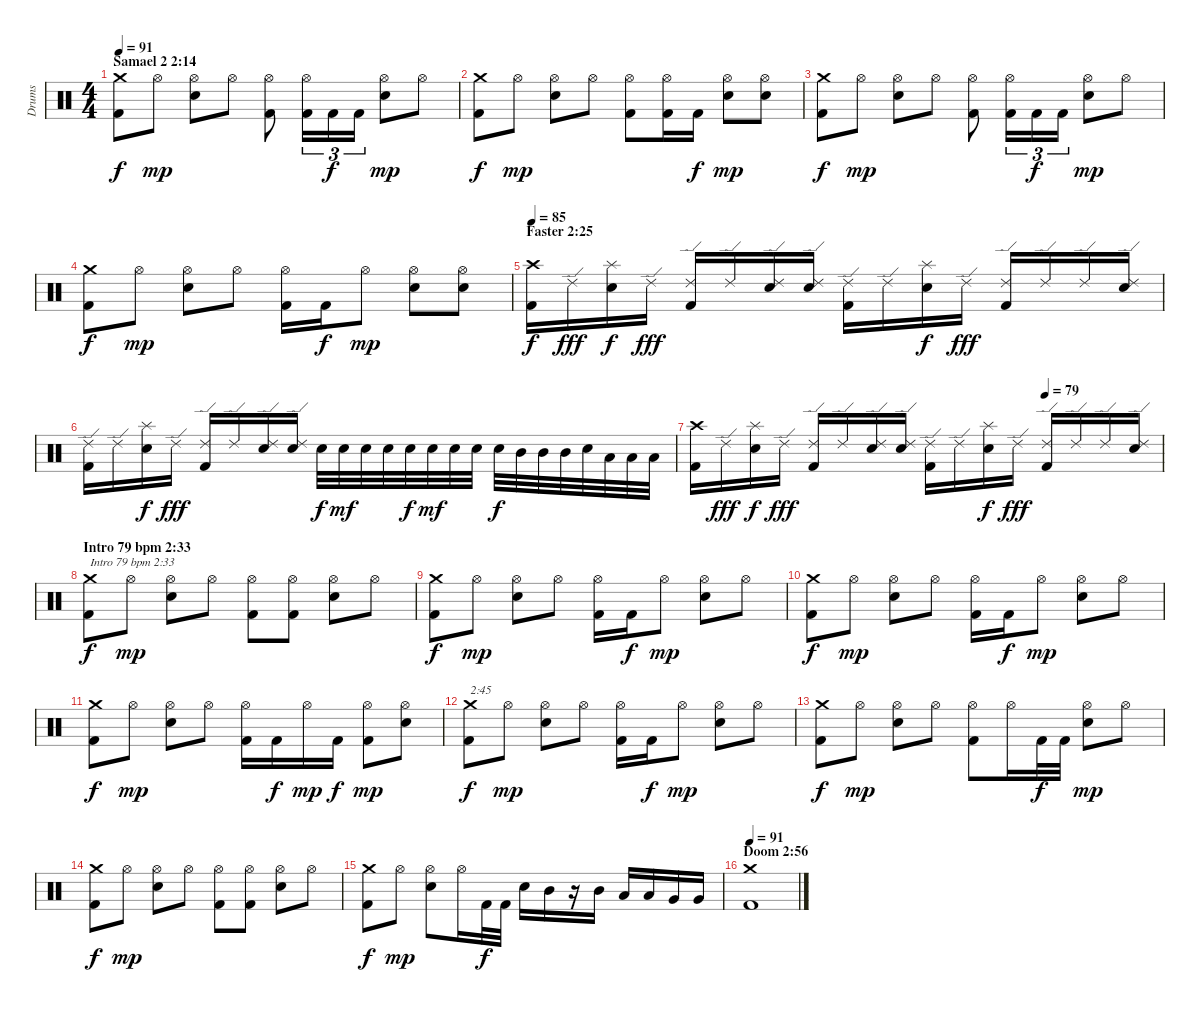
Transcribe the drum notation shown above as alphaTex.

\track ("Drums" "Drums") {instrument percussion}
\staff {score}
\articulation defaults
\ts (4 4)
\section ("" "Samael 2 2:14")
\tempo 91
\clef neutral
\ks c
("Kick (hit) 2" "Crash medium (hit)").8{dy f} "Hi-Hat (open)".8{dy mp} ("Electric Snare (hit)" "Hi-Hat (open)").8 "Hi-Hat (open)".8 ("Kick (hit) 2" "Hi-Hat (open)").8 ("Kick (hit) 2" "Hi-Hat (open)").16{tu (3 2)} "Kick (hit) 2".16{tu (3 2) dy f} "Kick (hit) 2".16{tu (3 2)} ("Electric Snare (hit)" "Hi-Hat (open)").8{dy mp} "Hi-Hat (open)".8 |
("Kick (hit) 2" "Crash medium (hit)").8{dy f} "Hi-Hat (open)".8{dy mp} ("Electric Snare (hit)" "Hi-Hat (open)").8 "Hi-Hat (open)".8 ("Kick (hit) 2" "Hi-Hat (open)").8 ("Kick (hit) 2" "Hi-Hat (open)").16 "Kick (hit) 2".16{dy f} ("Electric Snare (hit)" "Hi-Hat (open)").8{dy mp} ("Electric Snare (hit)" "Hi-Hat (open)").8 |
("Kick (hit) 2" "Crash medium (hit)").8{dy f} "Hi-Hat (open)".8{dy mp} ("Electric Snare (hit)" "Hi-Hat (open)").8 "Hi-Hat (open)".8 ("Kick (hit) 2" "Hi-Hat (open)").8 ("Kick (hit) 2" "Hi-Hat (open)").16{tu (3 2)} "Kick (hit) 2".16{tu (3 2) dy f} "Kick (hit) 2".16{tu (3 2)} ("Electric Snare (hit)" "Hi-Hat (open)").8{dy mp} "Hi-Hat (open)".8 |
("Kick (hit) 2" "Crash medium (hit)").8{dy f} "Hi-Hat (open)".8{dy mp} ("Electric Snare (hit)" "Hi-Hat (open)").8 "Hi-Hat (open)".8 ("Kick (hit) 2" "Hi-Hat (open)").16 "Kick (hit) 2".16{dy f} "Hi-Hat (open)".8{dy mp} ("Electric Snare (hit)" "Hi-Hat (open)").8 ("Electric Snare (hit)" "Hi-Hat (open)").8 |
\section ("" "Faster 2:25")
\tempo 85
("Kick (hit) 2" "Crash high (hit)").16{dy f} "Ride (edge) 2".16{dy fff} ("Electric Snare (hit)" "Splash (hit)").16{dy f} "Ride (edge) 2".16{dy fff} ("Kick (hit) 2" "Ride (edge) 2").16 "Ride (edge) 2".16 ("Electric Snare (hit)" "Ride (edge) 2").16 ("Electric Snare (hit)" "Ride (edge) 2").16 ("Kick (hit) 2" "Ride (edge) 2").16 "Ride (edge) 2".16 ("Electric Snare (hit)" "Splash (hit)").16{dy f} "Ride (edge) 2".16{dy fff} ("Kick (hit) 2" "Ride (edge) 2").16 "Ride (edge) 2".16 "Ride (edge) 2".16 ("Electric Snare (hit)" "Ride (edge) 2").16 |
("Kick (hit) 2" "Ride (edge) 2").16 "Ride (edge) 2".16 ("Electric Snare (hit)" "Splash (hit)").16{dy f} "Ride (edge) 2".16{dy fff} ("Kick (hit) 2" "Ride (edge) 2").16 "Ride (edge) 2".16 ("Electric Snare (hit)" "Ride (edge) 2").16 ("Electric Snare (hit)" "Ride (edge) 2").16 "Electric Snare (hit)".32{dy f} "Electric Snare (hit)".32{dy mf} "Electric Snare (hit)".32 "Electric Snare (hit)".32 "Electric Snare (hit)".32{dy f} "Electric Snare (hit)".32{dy mf} "Electric Snare (hit)".32 "Electric Snare (hit)".32 "Electric Snare (hit)".32{dy f} "Mid Tom (hit)".32 "Mid Tom (hit)".32 "Mid Tom (hit)".32 "Electric Snare (hit)".32 "Low Tom (hit)".32 "Low Tom (hit)".32 "Low Tom (hit)".32 |
\tempo (79 0.75)
("Kick (hit) 2" "Crash high (hit)").16 "Ride (edge) 2".16{dy fff} ("Electric Snare (hit)" "Splash (hit)").16{dy f} "Ride (edge) 2".16{dy fff} ("Kick (hit) 2" "Ride (edge) 2").16 "Ride (edge) 2".16 ("Electric Snare (hit)" "Ride (edge) 2").16 ("Electric Snare (hit)" "Ride (edge) 2").16 ("Kick (hit) 2" "Ride (edge) 2").16 "Ride (edge) 2".16 ("Electric Snare (hit)" "Splash (hit)").16{dy f} "Ride (edge) 2".16{dy fff} ("Kick (hit) 2" "Ride (edge) 2").16 "Ride (edge) 2".16 "Ride (edge) 2".16 ("Electric Snare (hit)" "Ride (edge) 2").16 |
\section ("" "Intro 79 bpm 2:33")
("Kick (hit) 2" "Crash medium (hit)").8{txt "Intro 79 bpm 2:33" dy f} "Hi-Hat (open)".8{dy mp} ("Electric Snare (hit)" "Hi-Hat (open)").8 "Hi-Hat (open)".8 ("Kick (hit) 2" "Hi-Hat (open)").8 ("Kick (hit) 2" "Hi-Hat (open)").8 ("Electric Snare (hit)" "Hi-Hat (open)").8 "Hi-Hat (open)".8 |
("Kick (hit) 2" "Crash medium (hit)").8{dy f} "Hi-Hat (open)".8{dy mp} ("Electric Snare (hit)" "Hi-Hat (open)").8 "Hi-Hat (open)".8 ("Kick (hit) 2" "Hi-Hat (open)").16 "Kick (hit) 2".16{dy f} "Hi-Hat (open)".8{dy mp} ("Electric Snare (hit)" "Hi-Hat (open)").8 "Hi-Hat (open)".8 |
("Kick (hit) 2" "Crash medium (hit)").8{dy f} "Hi-Hat (open)".8{dy mp} ("Electric Snare (hit)" "Hi-Hat (open)").8 "Hi-Hat (open)".8 ("Kick (hit) 2" "Hi-Hat (open)").16 "Kick (hit) 2".16{dy f} "Hi-Hat (open)".8{dy mp} ("Electric Snare (hit)" "Hi-Hat (open)").8 "Hi-Hat (open)".8 |
("Kick (hit) 2" "Crash medium (hit)").8{dy f} "Hi-Hat (open)".8{dy mp} ("Electric Snare (hit)" "Hi-Hat (open)").8 "Hi-Hat (open)".8 ("Kick (hit) 2" "Hi-Hat (open)").16 "Kick (hit) 2".16{dy f} "Hi-Hat (open)".16{dy mp} "Kick (hit) 2".16{dy f} ("Kick (hit) 2" "Hi-Hat (open)").8{dy mp} ("Electric Snare (hit)" "Hi-Hat (open)").8 |
("Kick (hit) 2" "Crash medium (hit)").8{txt "2:45" dy f} "Hi-Hat (open)".8{dy mp} ("Electric Snare (hit)" "Hi-Hat (open)").8 "Hi-Hat (open)".8 ("Kick (hit) 2" "Hi-Hat (open)").16 "Kick (hit) 2".16{dy f} "Hi-Hat (open)".8{dy mp} ("Electric Snare (hit)" "Hi-Hat (open)").8 "Hi-Hat (open)".8 |
("Kick (hit) 2" "Crash medium (hit)").8{dy f} "Hi-Hat (open)".8{dy mp} ("Electric Snare (hit)" "Hi-Hat (open)").8 "Hi-Hat (open)".8 ("Kick (hit) 2" "Hi-Hat (open)").8 "Hi-Hat (open)".16 "Kick (hit) 2".32{dy f} "Kick (hit) 2".32 ("Electric Snare (hit)" "Hi-Hat (open)").8{dy mp} "Hi-Hat (open)".8 |
("Kick (hit) 2" "Crash medium (hit)").8{dy f} "Hi-Hat (open)".8{dy mp} ("Electric Snare (hit)" "Hi-Hat (open)").8 "Hi-Hat (open)".8 ("Kick (hit) 2" "Hi-Hat (open)").8 ("Kick (hit) 2" "Hi-Hat (open)").8 ("Electric Snare (hit)" "Hi-Hat (open)").8 "Hi-Hat (open)".8 |
("Kick (hit) 2" "Crash medium (hit)").8{dy f} "Hi-Hat (open)".8{dy mp} ("Electric Snare (hit)" "Hi-Hat (open)").8 "Hi-Hat (open)".16 "Kick (hit) 2".32{dy f} "Kick (hit) 2".32 "Electric Snare (hit)".16 "Mid Tom (hit)".16 r.16 "Mid Tom (hit)".16 "Low Tom (hit)".16 "Low Tom (hit)".16 "Very Low Tom (hit)".16 "Very Low Tom (hit)".16 |
\section ("" "Doom 2:56")
\tempo 91
("Kick (hit) 2" "Crash medium (hit)").1
